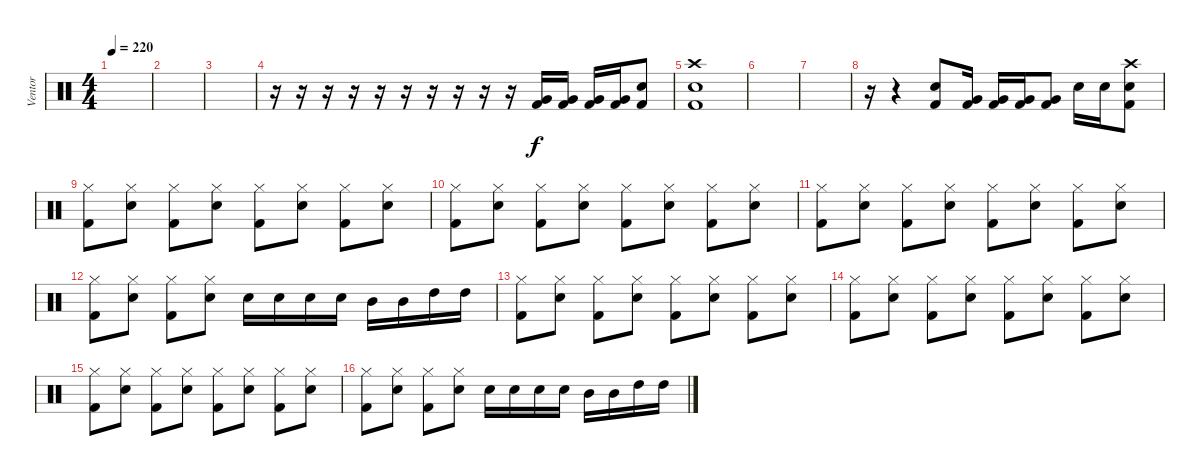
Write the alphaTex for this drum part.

\track ("Ventor" "Ventor") {instrument percussion}
\staff {score}
\articulation defaults
\ts (4 4)
\tempo 220
\clef neutral
\ks c
|
|
|
r.16 r.16 r.16 r.16 r.16 r.16 r.16 r.16 r.16 r.16 ("Kick (hit) 2" "Very Low Tom (hit)").16 ("Kick (hit) 2" "Very Low Tom (hit)").16 ("Kick (hit) 2" "Very Low Tom (hit)").16 ("Kick (hit) 2" "Very Low Tom (hit)").16 ("Kick (hit) 2" "Snare (hit) 2").8 |
("Kick (hit) 2" "Snare (hit) 2" "Crash high (hit)").1 |
|
|
r.16 r.4 ("Kick (hit) 2" "Snare (hit) 2").8 ("Kick (hit) 2" "Very Low Tom (hit)").16 ("Kick (hit) 2" "Very Low Tom (hit)").16 ("Kick (hit) 2" "Very Low Tom (hit)").16 ("Kick (hit) 2" "Very Low Tom (hit)").8 "Snare (hit) 2".16 "Snare (hit) 2".16 ("Kick (hit) 2" "Snare (hit) 2" "Crash high (hit)").8 |
("Kick (hit) 2" "Hi-Hat (closed)").8 ("Snare (hit) 2" "Hi-Hat (closed)").8 ("Kick (hit) 2" "Hi-Hat (closed)").8 ("Snare (hit) 2" "Hi-Hat (closed)").8 ("Kick (hit) 2" "Hi-Hat (closed)").8 ("Snare (hit) 2" "Hi-Hat (closed)").8 ("Kick (hit) 2" "Hi-Hat (closed)").8 ("Snare (hit) 2" "Hi-Hat (closed)").8 |
("Kick (hit) 2" "Hi-Hat (closed)").8 ("Snare (hit) 2" "Hi-Hat (closed)").8 ("Kick (hit) 2" "Hi-Hat (closed)").8 ("Snare (hit) 2" "Hi-Hat (closed)").8 ("Kick (hit) 2" "Hi-Hat (closed)").8 ("Snare (hit) 2" "Hi-Hat (closed)").8 ("Kick (hit) 2" "Hi-Hat (closed)").8 ("Snare (hit) 2" "Hi-Hat (closed)").8 |
("Kick (hit) 2" "Hi-Hat (closed)").8 ("Snare (hit) 2" "Hi-Hat (closed)").8 ("Kick (hit) 2" "Hi-Hat (closed)").8 ("Snare (hit) 2" "Hi-Hat (closed)").8 ("Kick (hit) 2" "Hi-Hat (closed)").8 ("Snare (hit) 2" "Hi-Hat (closed)").8 ("Kick (hit) 2" "Hi-Hat (closed)").8 ("Snare (hit) 2" "Hi-Hat (closed)").8 |
("Kick (hit) 2" "Hi-Hat (closed)").8 ("Snare (hit) 2" "Hi-Hat (closed)").8 ("Kick (hit) 2" "Hi-Hat (closed)").8 ("Snare (hit) 2" "Hi-Hat (closed)").8 "Snare (hit) 2".16 "Snare (hit) 2".16 "Snare (hit) 2".16 "Snare (hit) 2".16 "Mid Tom (hit)".16 "Mid Tom (hit)".16 "High Tom (hit)".16 "High Tom (hit)".16 |
("Kick (hit) 2" "Hi-Hat (closed)").8 ("Snare (hit) 2" "Hi-Hat (closed)").8 ("Kick (hit) 2" "Hi-Hat (closed)").8 ("Snare (hit) 2" "Hi-Hat (closed)").8 ("Kick (hit) 2" "Hi-Hat (closed)").8 ("Snare (hit) 2" "Hi-Hat (closed)").8 ("Kick (hit) 2" "Hi-Hat (closed)").8 ("Snare (hit) 2" "Hi-Hat (closed)").8 |
("Kick (hit) 2" "Hi-Hat (closed)").8 ("Snare (hit) 2" "Hi-Hat (closed)").8 ("Kick (hit) 2" "Hi-Hat (closed)").8 ("Snare (hit) 2" "Hi-Hat (closed)").8 ("Kick (hit) 2" "Hi-Hat (closed)").8 ("Snare (hit) 2" "Hi-Hat (closed)").8 ("Kick (hit) 2" "Hi-Hat (closed)").8 ("Snare (hit) 2" "Hi-Hat (closed)").8 |
("Kick (hit) 2" "Hi-Hat (closed)").8 ("Snare (hit) 2" "Hi-Hat (closed)").8 ("Kick (hit) 2" "Hi-Hat (closed)").8 ("Snare (hit) 2" "Hi-Hat (closed)").8 ("Kick (hit) 2" "Hi-Hat (closed)").8 ("Snare (hit) 2" "Hi-Hat (closed)").8 ("Kick (hit) 2" "Hi-Hat (closed)").8 ("Snare (hit) 2" "Hi-Hat (closed)").8 |
("Kick (hit) 2" "Hi-Hat (closed)").8 ("Snare (hit) 2" "Hi-Hat (closed)").8 ("Kick (hit) 2" "Hi-Hat (closed)").8 ("Snare (hit) 2" "Hi-Hat (closed)").8 "Snare (hit) 2".16 "Snare (hit) 2".16 "Snare (hit) 2".16 "Snare (hit) 2".16 "Mid Tom (hit)".16 "Mid Tom (hit)".16 "High Tom (hit)".16 "High Tom (hit)".16
